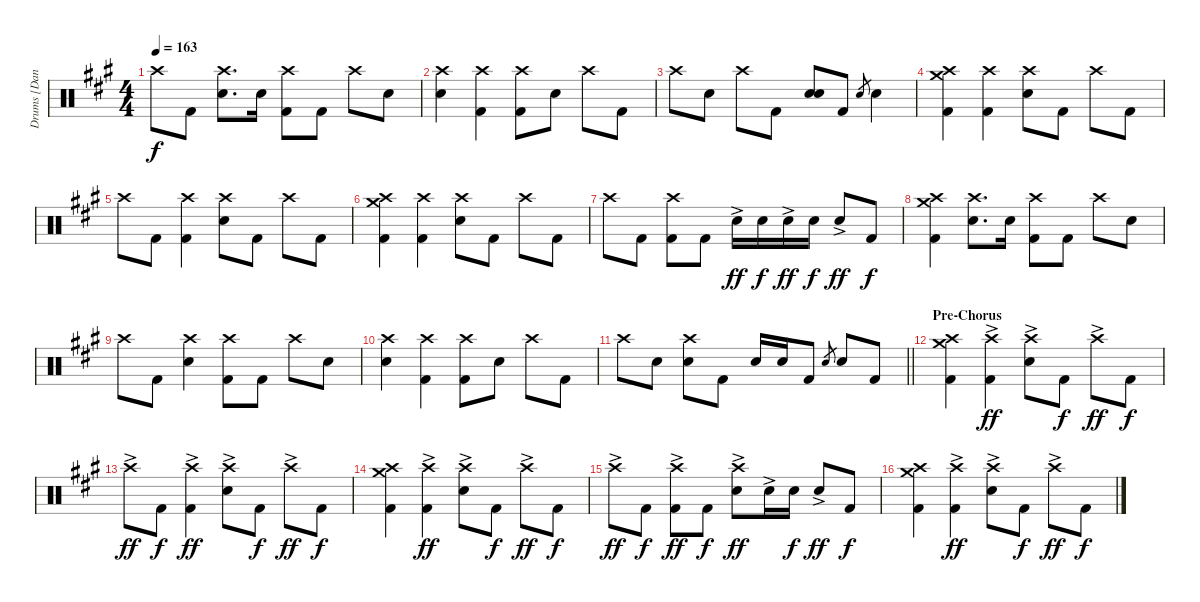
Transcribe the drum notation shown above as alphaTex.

\track ("Drums [Daniel Davison]" "Drums [Dan") {instrument percussion}
\staff {score}
\articulation defaults
\ts (4 4)
\tempo 163
\clef neutral
\ks a "Crash high (hit)".8{dy f} "Kick (hit) 2".8
("Crash high (hit)" "Electric Snare (hit)").8{d} "Electric Snare (hit)".16 ("Crash high (hit)" "Kick (hit) 2").8 "Kick (hit) 2".8 "Crash high (hit)".8 "Electric Snare (hit)".8 |
("Crash high (hit)" "Electric Snare (hit)").4 ("Crash high (hit)" "Kick (hit) 2").4 ("Crash high (hit)" "Kick (hit) 2").8 "Electric Snare (hit)".8 "Crash high (hit)".8 "Kick (hit) 2".8 |
"Crash high (hit)".8 "Electric Snare (hit)".8 "Crash high (hit)".8 "Kick (hit) 2".8 ("Electric Snare (hit)" "Electric Snare (hit)").8{bu 60} "Kick (hit) 2".8 "Electric Snare (hit)".8{gr} "Electric Snare (hit)".4 |
("Crash medium (hit)" "Crash high (hit)" "Kick (hit) 2").4 ("Crash high (hit)" "Kick (hit) 2").4 ("Crash high (hit)" "Electric Snare (hit)").8 "Kick (hit) 2".8 "Crash high (hit)".8 "Kick (hit) 2".8 |
"Crash high (hit)".8 "Kick (hit) 2".8 ("Crash high (hit)" "Kick (hit) 2").4 ("Crash high (hit)" "Electric Snare (hit)").8 "Kick (hit) 2".8 "Crash high (hit)".8 "Kick (hit) 2".8 |
("Crash medium (hit)" "Crash high (hit)" "Kick (hit) 2").4 ("Crash high (hit)" "Kick (hit) 2").4 ("Crash high (hit)" "Electric Snare (hit)").8 "Kick (hit) 2".8 "Crash high (hit)".8 "Kick (hit) 2".8 |
"Crash high (hit)".8 "Kick (hit) 2".8 ("Crash high (hit)" "Kick (hit) 2").8 "Kick (hit) 2".8 "Electric Snare (hit)"{ac}.16{dy ff} "Electric Snare (hit)".16{dy f} "Electric Snare (hit)"{ac}.16{dy ff} "Electric Snare (hit)".16{dy f} "Electric Snare (hit)"{ac}.8{dy ff} "Kick (hit) 2".8{dy f} |
("Crash medium (hit)" "Crash high (hit)" "Kick (hit) 2").4 ("Crash high (hit)" "Electric Snare (hit)").8{d} "Electric Snare (hit)".16 ("Crash high (hit)" "Kick (hit) 2").8 "Kick (hit) 2".8 "Crash high (hit)".8 "Electric Snare (hit)".8 |
"Crash high (hit)".8 "Kick (hit) 2".8 ("Crash high (hit)" "Electric Snare (hit)").4 ("Crash high (hit)" "Kick (hit) 2").8 "Kick (hit) 2".8 "Crash high (hit)".8 "Electric Snare (hit)".8 |
("Crash high (hit)" "Electric Snare (hit)").4 ("Crash high (hit)" "Kick (hit) 2").4 ("Crash high (hit)" "Kick (hit) 2").8 "Electric Snare (hit)".8 "Crash high (hit)".8 "Kick (hit) 2".8 |
\barLineRight lightlight "Crash high (hit)".8 "Electric Snare (hit)".8
("Crash high (hit)" "Electric Snare (hit)").8 "Kick (hit) 2".8 "Electric Snare (hit)".16 "Electric Snare (hit)".16 "Kick (hit) 2".8 "Electric Snare (hit)".8{gr} "Electric Snare (hit)".8 "Kick (hit) 2".8 |
\section ("" "Pre-Chorus")
("Crash medium (hit)" "Crash high (hit)" "Kick (hit) 2").4 ("Crash high (hit)"{ac} "Kick (hit) 2").4{dy ff} ("Crash high (hit)"{ac} "Electric Snare (hit)").8 "Kick (hit) 2".8{dy f} "Crash high (hit)"{ac}.8{dy ff} "Kick (hit) 2".8{dy f} |
"Crash high (hit)"{ac}.8{dy ff} "Kick (hit) 2".8{dy f} ("Crash high (hit)"{ac} "Kick (hit) 2").4{dy ff} ("Crash high (hit)"{ac} "Electric Snare (hit)").8 "Kick (hit) 2".8{dy f} "Crash high (hit)"{ac}.8{dy ff} "Kick (hit) 2".8{dy f} |
("Crash medium (hit)" "Crash high (hit)" "Kick (hit) 2").4 ("Crash high (hit)"{ac} "Kick (hit) 2").4{dy ff} ("Crash high (hit)"{ac} "Electric Snare (hit)").8 "Kick (hit) 2".8{dy f} "Crash high (hit)"{ac}.8{dy ff} "Kick (hit) 2".8{dy f} |
"Crash high (hit)"{ac}.8{dy ff} "Kick (hit) 2".8{dy f} ("Crash high (hit)"{ac} "Kick (hit) 2").8{dy ff} "Kick (hit) 2".8{dy f} ("Crash high (hit)"{ac} "Electric Snare (hit)").8{dy ff} "Electric Snare (hit)"{ac}.16 "Electric Snare (hit)".16{dy f} "Electric Snare (hit)"{ac}.8{dy ff} "Kick (hit) 2".8{dy f} |
("Crash medium (hit)" "Crash high (hit)" "Kick (hit) 2").4 ("Crash high (hit)"{ac} "Kick (hit) 2").4{dy ff} ("Crash high (hit)"{ac} "Electric Snare (hit)").8 "Kick (hit) 2".8{dy f} "Crash high (hit)"{ac}.8{dy ff} "Kick (hit) 2".8{dy f}
